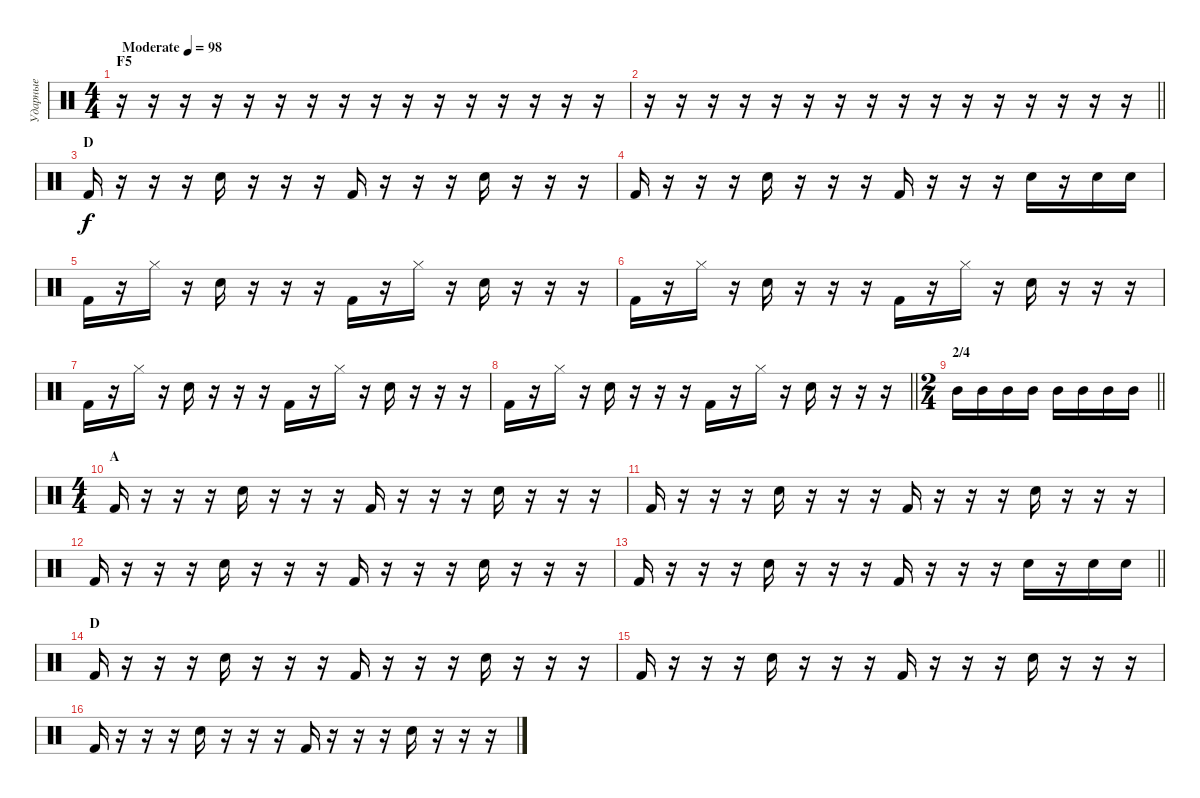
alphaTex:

\track ("Ударные" "Ударные") {instrument percussion}
\staff {score}
\articulation defaults
\ts (4 4)
\section ("" "F5")
\tempo (98 "Moderate")
\clef neutral
\ks c
r.16{dy f} r.16 r.16 r.16 r.16 r.16 r.16 r.16 r.16 r.16 r.16 r.16 r.16 r.16 r.16 r.16 |
\barLineRight lightlight
r.16 r.16 r.16 r.16 r.16 r.16 r.16 r.16 r.16 r.16 r.16 r.16 r.16 r.16 r.16 r.16 |
\section ("" "D")
"Kick (hit) 2".16 r.16 r.16 r.16 "Snare (hit) 2".16 r.16 r.16 r.16 "Kick (hit) 2".16 r.16 r.16 r.16 "Snare (hit) 2".16 r.16 r.16 r.16 |
"Kick (hit) 2".16 r.16 r.16 r.16 "Snare (hit) 2".16 r.16 r.16 r.16 "Kick (hit) 2".16 r.16 r.16 r.16 "Snare (hit) 2".16 r.16 "Snare (hit) 2".16 "Snare (hit) 2".16 |
"Kick (hit) 2".16 r.16 "Hi-Hat (closed)".16 r.16 "Snare (hit) 2".16 r.16 r.16 r.16 "Kick (hit) 2".16 r.16 "Hi-Hat (closed)".16 r.16 "Snare (hit) 2".16 r.16 r.16 r.16 |
"Kick (hit) 2".16 r.16 "Hi-Hat (closed)".16 r.16 "Snare (hit) 2".16 r.16 r.16 r.16 "Kick (hit) 2".16 r.16 "Hi-Hat (closed)".16 r.16 "Snare (hit) 2".16 r.16 r.16 r.16 |
"Kick (hit) 2".16 r.16 "Hi-Hat (closed)".16 r.16 "Snare (hit) 2".16 r.16 r.16 r.16 "Kick (hit) 2".16 r.16 "Hi-Hat (closed)".16 r.16 "Snare (hit) 2".16 r.16 r.16 r.16 |
\barLineRight lightlight "Kick (hit) 2".16
r.16 "Hi-Hat (closed)".16 r.16 "Snare (hit) 2".16 r.16 r.16 r.16 "Kick (hit) 2".16 r.16 "Hi-Hat (closed)".16 r.16 "Snare (hit) 2".16 r.16 r.16 r.16 |
\ts (2 4)
\section ("" "2/4")
\barLineRight lightlight "Mid Tom (hit)".16 "Mid Tom (hit)".16 "Mid Tom (hit)".16 "Mid Tom (hit)".16 "Mid Tom (hit)".16 "Mid Tom (hit)".16 "Mid Tom (hit)".16 "Mid Tom (hit)".16
|
\ts (4 4)
\section ("" "A")
"Kick (hit) 2".16 r.16 r.16 r.16 "Snare (hit) 2".16 r.16 r.16 r.16 "Kick (hit) 2".16 r.16 r.16 r.16 "Snare (hit) 2".16 r.16 r.16 r.16 |
"Kick (hit) 2".16 r.16 r.16 r.16 "Snare (hit) 2".16 r.16 r.16 r.16 "Kick (hit) 2".16 r.16 r.16 r.16 "Snare (hit) 2".16 r.16 r.16 r.16 |
"Kick (hit) 2".16 r.16 r.16 r.16 "Snare (hit) 2".16 r.16 r.16 r.16 "Kick (hit) 2".16 r.16 r.16 r.16 "Snare (hit) 2".16 r.16 r.16 r.16 |
\barLineRight lightlight "Kick (hit) 2".16
r.16 r.16 r.16 "Snare (hit) 2".16 r.16 r.16 r.16 "Kick (hit) 2".16 r.16 r.16 r.16 "Snare (hit) 2".16 r.16 "Snare (hit) 2".16 "Snare (hit) 2".16 |
\section ("" "D")
"Kick (hit) 2".16 r.16 r.16 r.16 "Snare (hit) 2".16 r.16 r.16 r.16 "Kick (hit) 2".16 r.16 r.16 r.16 "Snare (hit) 2".16 r.16 r.16 r.16 |
"Kick (hit) 2".16 r.16 r.16 r.16 "Snare (hit) 2".16 r.16 r.16 r.16 "Kick (hit) 2".16 r.16 r.16 r.16 "Snare (hit) 2".16 r.16 r.16 r.16 |
"Kick (hit) 2".16 r.16 r.16 r.16 "Snare (hit) 2".16 r.16 r.16 r.16 "Kick (hit) 2".16 r.16 r.16 r.16 "Snare (hit) 2".16 r.16 r.16 r.16
